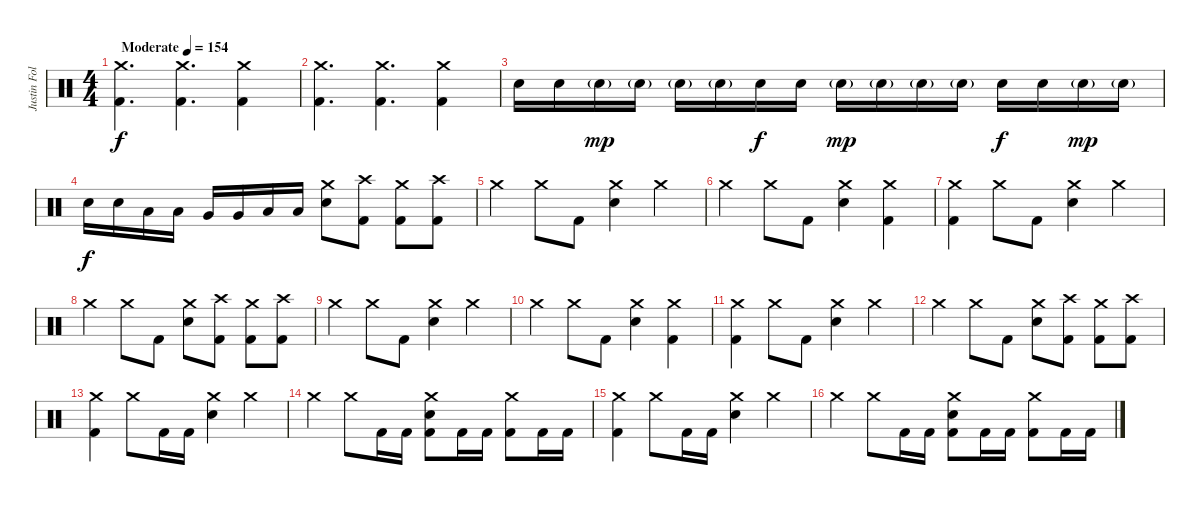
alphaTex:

\track ("Justin Foley" "Justin Fol") {instrument percussion}
\staff {score}
\articulation defaults
\ts (4 4)
\tempo (154 "Moderate")
\clef neutral
\ks c
("Crash medium (hit)" "Kick (hit) 2").4{d dy f} ("Crash medium (hit)" "Kick (hit) 2").4{d} ("Crash medium (hit)" "Kick (hit) 2").4 |
("Crash medium (hit)" "Kick (hit) 2").4{d} ("Crash medium (hit)" "Kick (hit) 2").4{d} ("Crash medium (hit)" "Kick (hit) 2").4 |
"Electric Snare (hit)".16 "Electric Snare (hit)".16 "Electric Snare (hit)"{g}.16{dy mp} "Electric Snare (hit)"{g}.16 "Electric Snare (hit)"{g}.16 "Electric Snare (hit)"{g}.16 "Electric Snare (hit)".16{dy f} "Electric Snare (hit)".16 "Electric Snare (hit)"{g}.16{dy mp} "Electric Snare (hit)"{g}.16 "Electric Snare (hit)"{g}.16 "Electric Snare (hit)"{g}.16 "Electric Snare (hit)".16{dy f} "Electric Snare (hit)".16 "Electric Snare (hit)"{g}.16{dy mp} "Electric Snare (hit)"{g}.16 |
"Electric Snare (hit)".16{dy f} "Electric Snare (hit)".16 "Low Tom (hit)".16 "Low Tom (hit)".16 "Very Low Tom (hit)".16 "Very Low Tom (hit)".16 "Low Floor Tom (hit)".16 "Low Floor Tom (hit)".16 ("Crash medium (hit)" "Electric Snare (hit)").8 ("Crash high (hit)" "Kick (hit) 2").8 ("Crash medium (hit)" "Kick (hit) 2").8 ("Crash high (hit)" "Kick (hit) 2").8 |
"Crash medium (hit)".4 "Crash medium (hit)".8 "Kick (hit) 2".8 ("Crash medium (hit)" "Electric Snare (hit)").4 "Crash medium (hit)".4 |
"Crash medium (hit)".4 "Crash medium (hit)".8 "Kick (hit) 2".8 ("Crash medium (hit)" "Electric Snare (hit)").4 ("Crash medium (hit)" "Kick (hit) 2").4 |
("Crash medium (hit)" "Kick (hit) 2").4 "Crash medium (hit)".8 "Kick (hit) 2".8 ("Crash medium (hit)" "Electric Snare (hit)").4 "Crash medium (hit)".4 |
"Crash medium (hit)".4 "Crash medium (hit)".8 "Kick (hit) 2".8 ("Crash medium (hit)" "Electric Snare (hit)").8 ("Crash high (hit)" "Kick (hit) 2").8 ("Crash medium (hit)" "Kick (hit) 2").8 ("Crash high (hit)" "Kick (hit) 2").8 |
"Crash medium (hit)".4 "Crash medium (hit)".8 "Kick (hit) 2".8 ("Crash medium (hit)" "Electric Snare (hit)").4 "Crash medium (hit)".4 |
"Crash medium (hit)".4 "Crash medium (hit)".8 "Kick (hit) 2".8 ("Crash medium (hit)" "Electric Snare (hit)").4 ("Crash medium (hit)" "Kick (hit) 2").4 |
("Crash medium (hit)" "Kick (hit) 2").4 "Crash medium (hit)".8 "Kick (hit) 2".8 ("Crash medium (hit)" "Electric Snare (hit)").4 "Crash medium (hit)".4 |
"Crash medium (hit)".4 "Crash medium (hit)".8 "Kick (hit) 2".8 ("Crash medium (hit)" "Electric Snare (hit)").8 ("Crash high (hit)" "Kick (hit) 2").8 ("Crash medium (hit)" "Kick (hit) 2").8 ("Crash high (hit)" "Kick (hit) 2").8 |
("Crash medium (hit)" "Kick (hit) 2").4 "Crash medium (hit)".8 "Kick (hit) 2".16 "Kick (hit) 2".16 ("Crash medium (hit)" "Electric Snare (hit)").4 "Crash medium (hit)".4 |
"Crash medium (hit)".4 "Crash medium (hit)".8 "Kick (hit) 2".16 "Kick (hit) 2".16 ("Crash medium (hit)" "Electric Snare (hit)" "Kick (hit) 2").8 "Kick (hit) 2".16 "Kick (hit) 2".16 ("Crash medium (hit)" "Kick (hit) 2").8 "Kick (hit) 2".16 "Kick (hit) 2".16 |
("Crash medium (hit)" "Kick (hit) 2").4 "Crash medium (hit)".8 "Kick (hit) 2".16 "Kick (hit) 2".16 ("Crash medium (hit)" "Electric Snare (hit)").4 "Crash medium (hit)".4 |
"Crash medium (hit)".4 "Crash medium (hit)".8 "Kick (hit) 2".16 "Kick (hit) 2".16 ("Crash medium (hit)" "Electric Snare (hit)" "Kick (hit) 2").8 "Kick (hit) 2".16 "Kick (hit) 2".16 ("Crash medium (hit)" "Kick (hit) 2").8 "Kick (hit) 2".16 "Kick (hit) 2".16
